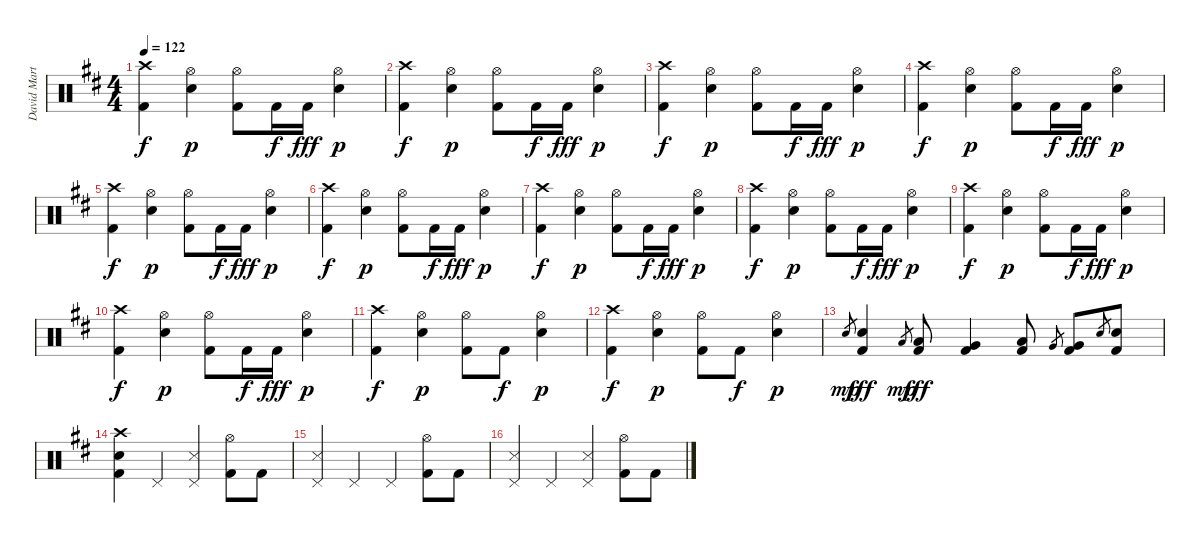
\track ("David Martinez" "David Mart") {instrument percussion}
\staff {score}
\articulation defaults
\ts (4 4)
\tempo 122
\clef neutral
\ks d
("Crash high (hit)" "Kick (hit) 2").4{dy f} ("Hi-Hat (open)" "Snare (hit) 2").4{dy p} ("Hi-Hat (open)" "Kick (hit) 2").8 "Kick (hit) 2".16{dy f} "Kick (hit) 2".16{dy fff} ("Hi-Hat (open)" "Snare (hit) 2").4{dy p} |
("Crash high (hit)" "Kick (hit) 2").4{dy f} ("Hi-Hat (open)" "Snare (hit) 2").4{dy p} ("Hi-Hat (open)" "Kick (hit) 2").8 "Kick (hit) 2".16{dy f} "Kick (hit) 2".16{dy fff} ("Hi-Hat (open)" "Snare (hit) 2").4{dy p} |
("Crash high (hit)" "Kick (hit) 2").4{dy f} ("Hi-Hat (open)" "Snare (hit) 2").4{dy p} ("Hi-Hat (open)" "Kick (hit) 2").8 "Kick (hit) 2".16{dy f} "Kick (hit) 2".16{dy fff} ("Hi-Hat (open)" "Snare (hit) 2").4{dy p} |
("Crash high (hit)" "Kick (hit) 2").4{dy f} ("Hi-Hat (open)" "Snare (hit) 2").4{dy p} ("Hi-Hat (open)" "Kick (hit) 2").8 "Kick (hit) 2".16{dy f} "Kick (hit) 2".16{dy fff} ("Hi-Hat (open)" "Snare (hit) 2").4{dy p} |
("Crash high (hit)" "Kick (hit) 2").4{dy f} ("Hi-Hat (open)" "Snare (hit) 2").4{dy p} ("Hi-Hat (open)" "Kick (hit) 2").8 "Kick (hit) 2".16{dy f} "Kick (hit) 2".16{dy fff} ("Hi-Hat (open)" "Snare (hit) 2").4{dy p} |
("Crash high (hit)" "Kick (hit) 2").4{dy f} ("Hi-Hat (open)" "Snare (hit) 2").4{dy p} ("Hi-Hat (open)" "Kick (hit) 2").8 "Kick (hit) 2".16{dy f} "Kick (hit) 2".16{dy fff} ("Hi-Hat (open)" "Snare (hit) 2").4{dy p} |
("Crash high (hit)" "Kick (hit) 2").4{dy f} ("Hi-Hat (open)" "Snare (hit) 2").4{dy p} ("Hi-Hat (open)" "Kick (hit) 2").8 "Kick (hit) 2".16{dy f} "Kick (hit) 2".16{dy fff} ("Hi-Hat (open)" "Snare (hit) 2").4{dy p} |
("Crash high (hit)" "Kick (hit) 2").4{dy f volume 16} ("Hi-Hat (open)" "Snare (hit) 2").4{dy p} ("Hi-Hat (open)" "Kick (hit) 2").8 "Kick (hit) 2".16{dy f} "Kick (hit) 2".16{dy fff} ("Hi-Hat (open)" "Snare (hit) 2").4{dy p} |
("Crash high (hit)" "Kick (hit) 2").4{dy f} ("Hi-Hat (open)" "Snare (hit) 2").4{dy p} ("Hi-Hat (open)" "Kick (hit) 2").8 "Kick (hit) 2".16{dy f} "Kick (hit) 2".16{dy fff} ("Hi-Hat (open)" "Snare (hit) 2").4{dy p} |
("Crash high (hit)" "Kick (hit) 2").4{dy f} ("Hi-Hat (open)" "Snare (hit) 2").4{dy p} ("Hi-Hat (open)" "Kick (hit) 2").8 "Kick (hit) 2".16{dy f} "Kick (hit) 2".16{dy fff} ("Hi-Hat (open)" "Snare (hit) 2").4{dy p} |
("Crash high (hit)" "Kick (hit) 2").4{dy f} ("Hi-Hat (open)" "Snare (hit) 2").4{dy p} ("Hi-Hat (open)" "Kick (hit) 2").8 "Kick (hit) 2".8{dy f} ("Hi-Hat (open)" "Snare (hit) 2").4{dy p} |
("Crash high (hit)" "Kick (hit) 2").4{dy f} ("Hi-Hat (open)" "Snare (hit) 2").4{dy p} ("Hi-Hat (open)" "Kick (hit) 2").8 "Kick (hit) 2".8{dy f} ("Hi-Hat (open)" "Snare (hit) 2").4{dy p} |
"Snare (hit) 2".8{gr dy mp} ("Snare (hit) 2" "Kick (hit) 2").4{dy fff} "Low Floor Tom (hit)".8{gr dy mp} ("Low Floor Tom (hit)" "Kick (hit) 2").8{dy fff} ("Kick (hit) 2" "Very Low Tom (hit)").4 ("Low Tom (hit)" "Kick (hit) 2").8 "Very Low Tom (hit)".8{gr} ("Kick (hit) 2" "Very Low Tom (hit)").8 "Snare (hit) 2".8{gr} ("Snare (hit) 2" "Kick (hit) 2").8 |
("Kick (hit) 2" "Snare (hit) 2" "Crash high (hit)").4 "Pedal Hi-Hat (hit)".4 ("Pedal Hi-Hat (hit)" "Snare (side stick) 3").4 ("Hi-Hat (open)" "Kick (hit) 2").8 "Kick (hit) 2".8 |
("Pedal Hi-Hat (hit)" "Snare (side stick) 3").4 "Pedal Hi-Hat (hit)".4 "Pedal Hi-Hat (hit)".4 ("Hi-Hat (open)" "Kick (hit) 2").8 "Kick (hit) 2".8 |
("Pedal Hi-Hat (hit)" "Snare (side stick) 3").4 "Pedal Hi-Hat (hit)".4 ("Pedal Hi-Hat (hit)" "Snare (side stick) 3").4 ("Hi-Hat (open)" "Kick (hit) 2").8 "Kick (hit) 2".8
